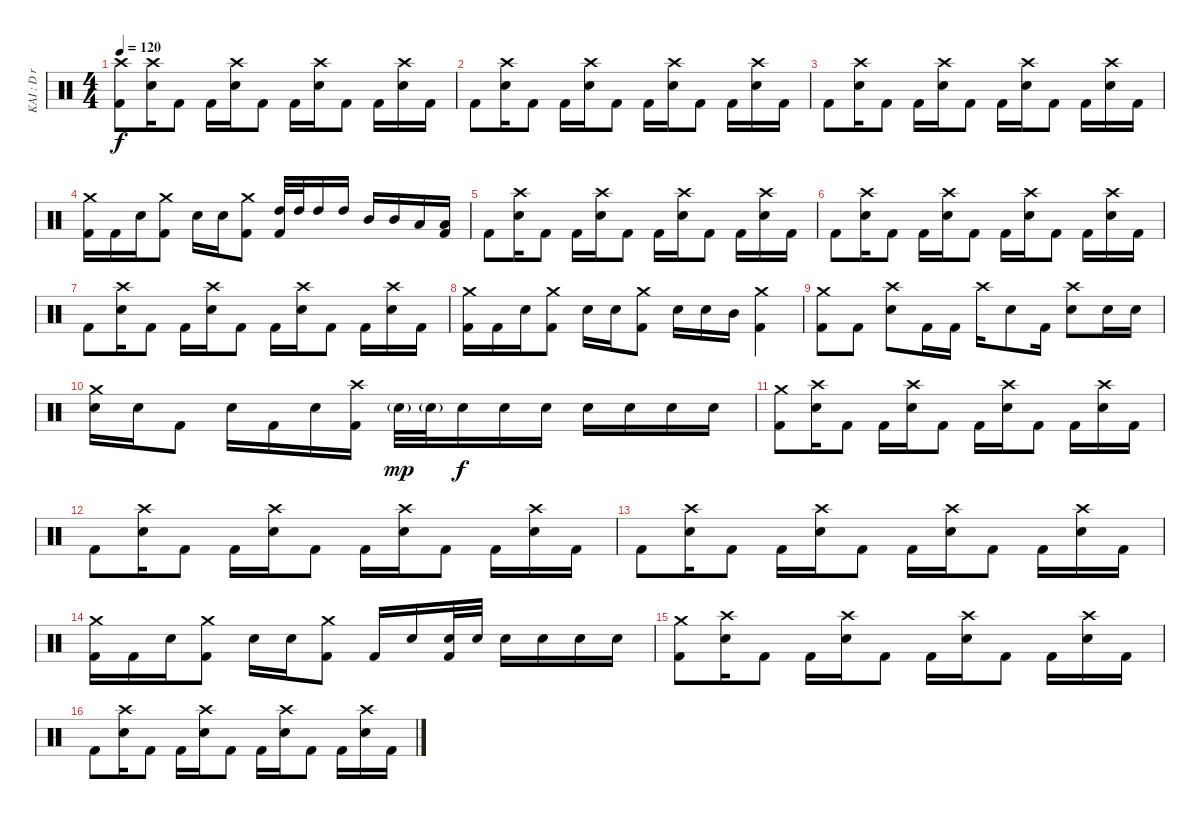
\track ("KAI : D r u m S" "KAI : D r ") {instrument percussion}
\staff {score}
\articulation defaults
\ts (4 4)
\tempo 120
\clef neutral
\ks c
("Crash high (hit)" "Kick (hit) 2").8{dy f} ("Crash high (hit)" "Electric Snare (hit)").16 "Kick (hit) 2".8 "Kick (hit) 2".16 ("Crash high (hit)" "Electric Snare (hit)").16 "Kick (hit) 2".8 "Kick (hit) 2".16 ("Crash high (hit)" "Electric Snare (hit)").16 "Kick (hit) 2".8 "Kick (hit) 2".16 ("Crash high (hit)" "Electric Snare (hit)").16 "Kick (hit) 2".16 |
"Kick (hit) 2".8 ("Crash high (hit)" "Electric Snare (hit)").16 "Kick (hit) 2".8 "Kick (hit) 2".16 ("Crash high (hit)" "Electric Snare (hit)").16 "Kick (hit) 2".8 "Kick (hit) 2".16 ("Crash high (hit)" "Electric Snare (hit)").16 "Kick (hit) 2".8 "Kick (hit) 2".16 ("Crash high (hit)" "Electric Snare (hit)").16 "Kick (hit) 2".16 |
"Kick (hit) 2".8 ("Crash high (hit)" "Electric Snare (hit)").16 "Kick (hit) 2".8 "Kick (hit) 2".16 ("Crash high (hit)" "Electric Snare (hit)").16 "Kick (hit) 2".8 "Kick (hit) 2".16 ("Crash high (hit)" "Electric Snare (hit)").16 "Kick (hit) 2".8 "Kick (hit) 2".16 ("Crash high (hit)" "Electric Snare (hit)").16 "Kick (hit) 2".16 |
("Crash medium (hit)" "Kick (hit) 2").16 "Kick (hit) 2".16 "Electric Snare (hit)".16 ("Crash medium (hit)" "Kick (hit) 2").8 "Electric Snare (hit)".16 "Electric Snare (hit)".16 ("Crash medium (hit)" "Kick (hit) 2").8 ("High Tom (hit)" "Kick (hit) 2").32 "High Tom (hit)".32 "High Tom (hit)".16 "High Tom (hit)".16 "Mid Tom (hit)".16 "Mid Tom (hit)".16 "Low Tom (hit)".16 ("Low Tom (hit)" "Kick (hit) 2").16 |
"Kick (hit) 2".8 ("Crash high (hit)" "Electric Snare (hit)").16 "Kick (hit) 2".8 "Kick (hit) 2".16 ("Crash high (hit)" "Electric Snare (hit)").16 "Kick (hit) 2".8 "Kick (hit) 2".16 ("Crash high (hit)" "Electric Snare (hit)").16 "Kick (hit) 2".8 "Kick (hit) 2".16 ("Crash high (hit)" "Electric Snare (hit)").16 "Kick (hit) 2".16 |
"Kick (hit) 2".8 ("Crash high (hit)" "Electric Snare (hit)").16 "Kick (hit) 2".8 "Kick (hit) 2".16 ("Crash high (hit)" "Electric Snare (hit)").16 "Kick (hit) 2".8 "Kick (hit) 2".16 ("Crash high (hit)" "Electric Snare (hit)").16 "Kick (hit) 2".8 "Kick (hit) 2".16 ("Crash high (hit)" "Electric Snare (hit)").16 "Kick (hit) 2".16 |
"Kick (hit) 2".8 ("Crash high (hit)" "Electric Snare (hit)").16 "Kick (hit) 2".8 "Kick (hit) 2".16 ("Crash high (hit)" "Electric Snare (hit)").16 "Kick (hit) 2".8 "Kick (hit) 2".16 ("Crash high (hit)" "Electric Snare (hit)").16 "Kick (hit) 2".8 "Kick (hit) 2".16 ("Crash high (hit)" "Electric Snare (hit)").16 "Kick (hit) 2".16 |
("Crash medium (hit)" "Kick (hit) 2").16 "Kick (hit) 2".16 "Electric Snare (hit)".16 ("Crash medium (hit)" "Kick (hit) 2").8 "Electric Snare (hit)".16 "Electric Snare (hit)".16 ("Crash medium (hit)" "Kick (hit) 2").8 "Electric Snare (hit)".16 "Electric Snare (hit)".16 "Mid Tom (hit)".16 ("Crash medium (hit)" "Kick (hit) 2").4 |
("Crash medium (hit)" "Kick (hit) 2").8 "Kick (hit) 2".8 ("Crash high (hit)" "Electric Snare (hit)").8 "Kick (hit) 2".16 "Kick (hit) 2".16 "Crash high (hit)".16 "Electric Snare (hit)".8 "Kick (hit) 2".16 ("Crash high (hit)" "Electric Snare (hit)").8 "Electric Snare (hit)".16 "Electric Snare (hit)".16 |
("Crash medium (hit)" "Electric Snare (hit)").16 "Electric Snare (hit)".16 "Kick (hit) 2".8 "Electric Snare (hit)".16 "Kick (hit) 2".16 "Electric Snare (hit)".16 ("Crash high (hit)" "Kick (hit) 2").16 "Electric Snare (hit)"{g}.32{dy mp} "Electric Snare (hit)"{g}.32 "Electric Snare (hit)".16{dy f} "Electric Snare (hit)".16 "Electric Snare (hit)".16 "Electric Snare (hit)".16 "Electric Snare (hit)".16 "Electric Snare (hit)".16 "Electric Snare (hit)".16 |
("Crash medium (hit)" "Kick (hit) 2").8 ("Crash high (hit)" "Electric Snare (hit)").16 "Kick (hit) 2".8 "Kick (hit) 2".16 ("Crash high (hit)" "Electric Snare (hit)").16 "Kick (hit) 2".8 "Kick (hit) 2".16 ("Crash high (hit)" "Electric Snare (hit)").16 "Kick (hit) 2".8 "Kick (hit) 2".16 ("Crash high (hit)" "Electric Snare (hit)").16 "Kick (hit) 2".16 |
"Kick (hit) 2".8 ("Crash high (hit)" "Electric Snare (hit)").16 "Kick (hit) 2".8 "Kick (hit) 2".16 ("Crash high (hit)" "Electric Snare (hit)").16 "Kick (hit) 2".8 "Kick (hit) 2".16 ("Crash high (hit)" "Electric Snare (hit)").16 "Kick (hit) 2".8 "Kick (hit) 2".16 ("Crash high (hit)" "Electric Snare (hit)").16 "Kick (hit) 2".16 |
"Kick (hit) 2".8 ("Crash high (hit)" "Electric Snare (hit)").16 "Kick (hit) 2".8 "Kick (hit) 2".16 ("Crash high (hit)" "Electric Snare (hit)").16 "Kick (hit) 2".8 "Kick (hit) 2".16 ("Crash high (hit)" "Electric Snare (hit)").16 "Kick (hit) 2".8 "Kick (hit) 2".16 ("Crash high (hit)" "Electric Snare (hit)").16 "Kick (hit) 2".16 |
("Crash medium (hit)" "Kick (hit) 2").16 "Kick (hit) 2".16 "Electric Snare (hit)".16 ("Crash medium (hit)" "Kick (hit) 2").8 "Electric Snare (hit)".16 "Electric Snare (hit)".16 ("Crash medium (hit)" "Kick (hit) 2").8 "Kick (hit) 2".16 "Electric Snare (hit)".16 ("Electric Snare (hit)" "Kick (hit) 2").32 "Electric Snare (hit)".32 "Electric Snare (hit)".16 "Electric Snare (hit)".16 "Electric Snare (hit)".16 "Electric Snare (hit)".16 |
("Crash medium (hit)" "Kick (hit) 2").8 ("Crash high (hit)" "Electric Snare (hit)").16 "Kick (hit) 2".8 "Kick (hit) 2".16 ("Crash high (hit)" "Electric Snare (hit)").16 "Kick (hit) 2".8 "Kick (hit) 2".16 ("Crash high (hit)" "Electric Snare (hit)").16 "Kick (hit) 2".8 "Kick (hit) 2".16 ("Crash high (hit)" "Electric Snare (hit)").16 "Kick (hit) 2".16 |
"Kick (hit) 2".8 ("Crash high (hit)" "Electric Snare (hit)").16 "Kick (hit) 2".8 "Kick (hit) 2".16 ("Crash high (hit)" "Electric Snare (hit)").16 "Kick (hit) 2".8 "Kick (hit) 2".16 ("Crash high (hit)" "Electric Snare (hit)").16 "Kick (hit) 2".8 "Kick (hit) 2".16 ("Crash high (hit)" "Electric Snare (hit)").16 "Kick (hit) 2".16
